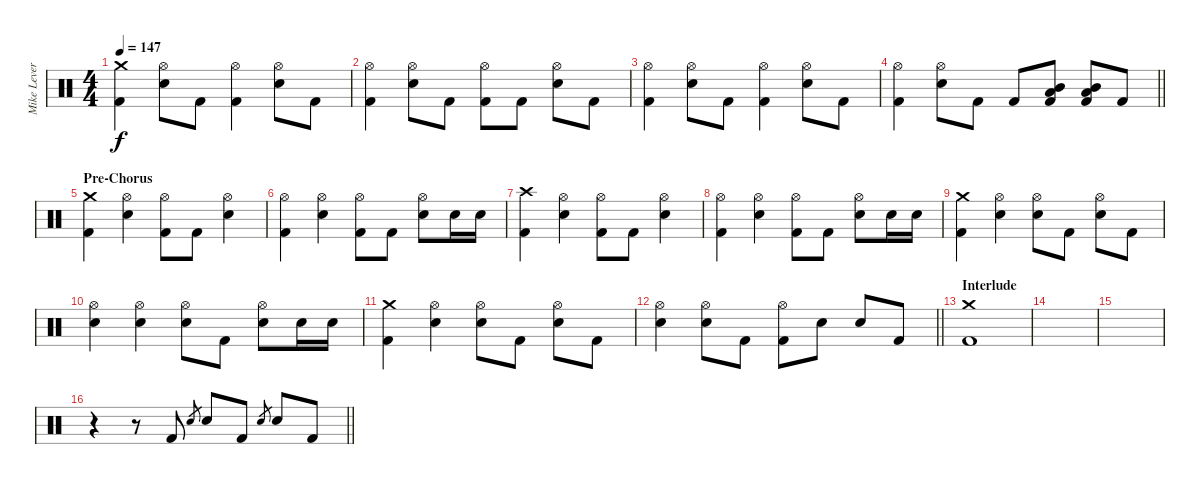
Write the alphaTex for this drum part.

\track ("Mike Leverence - Drums" "Mike Lever") {instrument percussion}
\staff {score}
\articulation defaults
\ts (4 4)
\tempo 147
\clef neutral
\ks c
("Crash medium (hit)" "Kick (hit) 2").4{dy f} ("Hi-Hat (open)" "Electric Snare (hit)").8 "Kick (hit) 2".8 ("Hi-Hat (open)" "Kick (hit) 2").4 ("Hi-Hat (open)" "Electric Snare (hit)").8 "Kick (hit) 2".8 |
("Hi-Hat (open)" "Kick (hit) 2").4 ("Hi-Hat (open)" "Electric Snare (hit)").8 "Kick (hit) 2".8 ("Hi-Hat (open)" "Kick (hit) 2").8 "Kick (hit) 2".8 ("Hi-Hat (open)" "Electric Snare (hit)").8 "Kick (hit) 2".8 |
("Hi-Hat (open)" "Kick (hit) 2").4 ("Hi-Hat (open)" "Electric Snare (hit)").8 "Kick (hit) 2".8 ("Hi-Hat (open)" "Kick (hit) 2").4 ("Hi-Hat (open)" "Electric Snare (hit)").8 "Kick (hit) 2".8 |
\barLineRight lightlight
("Hi-Hat (open)" "Kick (hit) 2").4 ("Hi-Hat (open)" "Electric Snare (hit)").8 "Kick (hit) 2".8 "Kick (hit) 2".8 ("Low Tom (hit)" "Mid Tom (hit)" "Kick (hit) 2").8 ("Low Tom (hit)" "Mid Tom (hit)" "Kick (hit) 2").8 "Kick (hit) 2".8 |
\section ("" "Pre-Chorus")
("Crash medium (hit)" "Kick (hit) 2").4 ("Hi-Hat (open)" "Electric Snare (hit)").4 ("Hi-Hat (open)" "Kick (hit) 2").8 "Kick (hit) 2".8 ("Hi-Hat (open)" "Electric Snare (hit)").4 |
("Hi-Hat (open)" "Kick (hit) 2").4 ("Hi-Hat (open)" "Electric Snare (hit)").4 ("Hi-Hat (open)" "Kick (hit) 2").8 "Kick (hit) 2".8 ("Hi-Hat (open)" "Electric Snare (hit)").8 "Electric Snare (hit)".16 "Electric Snare (hit)".16 |
("Crash high (hit)" "Kick (hit) 2").4 ("Hi-Hat (open)" "Electric Snare (hit)").4 ("Hi-Hat (open)" "Kick (hit) 2").8 "Kick (hit) 2".8 ("Hi-Hat (open)" "Electric Snare (hit)").4 |
("Hi-Hat (open)" "Kick (hit) 2").4 ("Hi-Hat (open)" "Electric Snare (hit)").4 ("Hi-Hat (open)" "Kick (hit) 2").8 "Kick (hit) 2".8 ("Hi-Hat (open)" "Electric Snare (hit)").8 "Electric Snare (hit)".16 "Electric Snare (hit)".16 |
("Crash medium (hit)" "Kick (hit) 2").4 ("Hi-Hat (open)" "Electric Snare (hit)").4 ("Hi-Hat (open)" "Electric Snare (hit)").8 "Kick (hit) 2".8 ("Hi-Hat (open)" "Electric Snare (hit)").8 "Kick (hit) 2".8 |
("Hi-Hat (open)" "Electric Snare (hit)").4 ("Hi-Hat (open)" "Electric Snare (hit)").4 ("Hi-Hat (open)" "Electric Snare (hit)").8 "Kick (hit) 2".8 ("Hi-Hat (open)" "Electric Snare (hit)").8 "Electric Snare (hit)".16 "Electric Snare (hit)".16 |
("Crash medium (hit)" "Kick (hit) 2").4 ("Hi-Hat (open)" "Electric Snare (hit)").4 ("Hi-Hat (open)" "Electric Snare (hit)").8 "Kick (hit) 2".8 ("Hi-Hat (open)" "Electric Snare (hit)").8 "Kick (hit) 2".8 |
\barLineRight lightlight
("Hi-Hat (open)" "Electric Snare (hit)").4 ("Hi-Hat (open)" "Electric Snare (hit)").8 "Kick (hit) 2".8 ("Hi-Hat (open)" "Kick (hit) 2").8 "Electric Snare (hit)".8 "Electric Snare (hit)".8 "Kick (hit) 2".8 |
\section ("" "Interlude")
("Crash medium (hit)" "Kick (hit) 2").1 |
|
|
\barLineRight lightlight
r.4 r.8 "Kick (hit) 2".8 "Electric Snare (hit)".8{gr} "Electric Snare (hit)".8 "Kick (hit) 2".8 "Electric Snare (hit)".8{gr} "Electric Snare (hit)".8 "Kick (hit) 2".8
